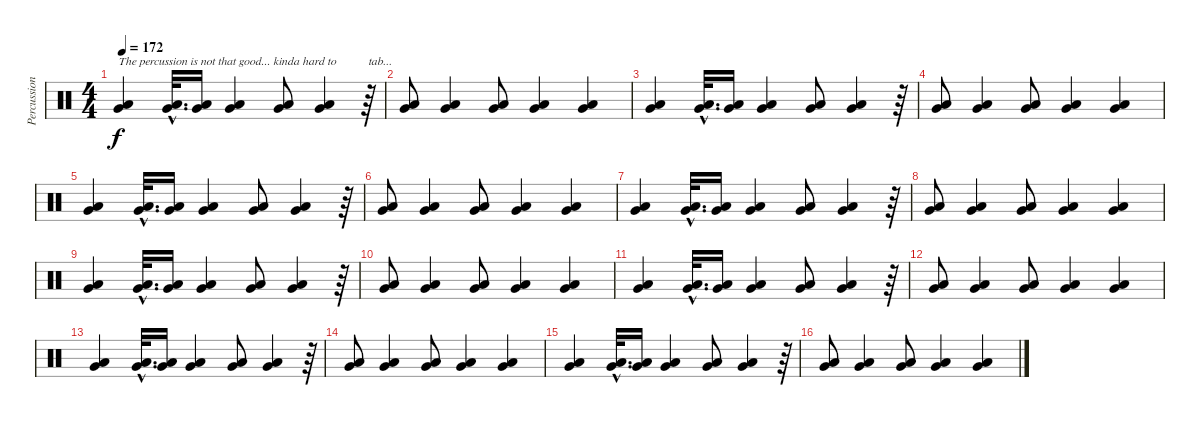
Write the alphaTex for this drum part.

\track ("Percussion / Drum Fills" "Percussion") {instrument percussion}
\staff {score}
\articulation defaults
\ts (4 4)
\tempo 172
\clef neutral
\ks c
("Very Low Tom (hit)" "Low Floor Tom (hit)").4{txt "The percussion is not that good... kinda hard to " dy f} ("Very Low Tom (hit)"{hac} "Low Floor Tom (hit)"{hac}).32{d} ("Very Low Tom (hit)" "Low Floor Tom (hit)").16 ("Very Low Tom (hit)" "Low Floor Tom (hit)").4 ("Very Low Tom (hit)" "Low Floor Tom (hit)").8 ("Very Low Tom (hit)" "Low Floor Tom (hit)").4 r.64{txt "tab..."} |
("Very Low Tom (hit)" "Low Floor Tom (hit)").8 ("Very Low Tom (hit)" "Low Floor Tom (hit)").4 ("Very Low Tom (hit)" "Low Floor Tom (hit)").8 ("Very Low Tom (hit)" "Low Floor Tom (hit)").4 ("Very Low Tom (hit)" "Low Floor Tom (hit)").4 |
("Very Low Tom (hit)" "Low Floor Tom (hit)").4 ("Very Low Tom (hit)"{hac} "Low Floor Tom (hit)"{hac}).32{d} ("Very Low Tom (hit)" "Low Floor Tom (hit)").16 ("Very Low Tom (hit)" "Low Floor Tom (hit)").4 ("Very Low Tom (hit)" "Low Floor Tom (hit)").8 ("Very Low Tom (hit)" "Low Floor Tom (hit)").4 r.64 |
("Very Low Tom (hit)" "Low Floor Tom (hit)").8 ("Very Low Tom (hit)" "Low Floor Tom (hit)").4 ("Very Low Tom (hit)" "Low Floor Tom (hit)").8 ("Very Low Tom (hit)" "Low Floor Tom (hit)").4 ("Very Low Tom (hit)" "Low Floor Tom (hit)").4 |
("Very Low Tom (hit)" "Low Floor Tom (hit)").4 ("Very Low Tom (hit)"{hac} "Low Floor Tom (hit)"{hac}).32{d} ("Very Low Tom (hit)" "Low Floor Tom (hit)").16 ("Very Low Tom (hit)" "Low Floor Tom (hit)").4 ("Very Low Tom (hit)" "Low Floor Tom (hit)").8 ("Very Low Tom (hit)" "Low Floor Tom (hit)").4 r.64 |
("Very Low Tom (hit)" "Low Floor Tom (hit)").8 ("Very Low Tom (hit)" "Low Floor Tom (hit)").4 ("Very Low Tom (hit)" "Low Floor Tom (hit)").8 ("Very Low Tom (hit)" "Low Floor Tom (hit)").4 ("Very Low Tom (hit)" "Low Floor Tom (hit)").4 |
("Very Low Tom (hit)" "Low Floor Tom (hit)").4 ("Very Low Tom (hit)"{hac} "Low Floor Tom (hit)"{hac}).32{d} ("Very Low Tom (hit)" "Low Floor Tom (hit)").16 ("Very Low Tom (hit)" "Low Floor Tom (hit)").4 ("Very Low Tom (hit)" "Low Floor Tom (hit)").8 ("Very Low Tom (hit)" "Low Floor Tom (hit)").4 r.64 |
("Very Low Tom (hit)" "Low Floor Tom (hit)").8 ("Very Low Tom (hit)" "Low Floor Tom (hit)").4 ("Very Low Tom (hit)" "Low Floor Tom (hit)").8 ("Very Low Tom (hit)" "Low Floor Tom (hit)").4 ("Very Low Tom (hit)" "Low Floor Tom (hit)").4 |
("Very Low Tom (hit)" "Low Floor Tom (hit)").4 ("Very Low Tom (hit)"{hac} "Low Floor Tom (hit)"{hac}).32{d} ("Very Low Tom (hit)" "Low Floor Tom (hit)").16 ("Very Low Tom (hit)" "Low Floor Tom (hit)").4 ("Very Low Tom (hit)" "Low Floor Tom (hit)").8 ("Very Low Tom (hit)" "Low Floor Tom (hit)").4 r.64 |
("Very Low Tom (hit)" "Low Floor Tom (hit)").8 ("Very Low Tom (hit)" "Low Floor Tom (hit)").4 ("Very Low Tom (hit)" "Low Floor Tom (hit)").8 ("Very Low Tom (hit)" "Low Floor Tom (hit)").4 ("Very Low Tom (hit)" "Low Floor Tom (hit)").4 |
("Very Low Tom (hit)" "Low Floor Tom (hit)").4 ("Very Low Tom (hit)"{hac} "Low Floor Tom (hit)"{hac}).32{d} ("Very Low Tom (hit)" "Low Floor Tom (hit)").16 ("Very Low Tom (hit)" "Low Floor Tom (hit)").4 ("Very Low Tom (hit)" "Low Floor Tom (hit)").8 ("Very Low Tom (hit)" "Low Floor Tom (hit)").4 r.64 |
("Very Low Tom (hit)" "Low Floor Tom (hit)").8 ("Very Low Tom (hit)" "Low Floor Tom (hit)").4 ("Very Low Tom (hit)" "Low Floor Tom (hit)").8 ("Very Low Tom (hit)" "Low Floor Tom (hit)").4 ("Very Low Tom (hit)" "Low Floor Tom (hit)").4 |
("Very Low Tom (hit)" "Low Floor Tom (hit)").4 ("Very Low Tom (hit)"{hac} "Low Floor Tom (hit)"{hac}).32{d} ("Very Low Tom (hit)" "Low Floor Tom (hit)").16 ("Very Low Tom (hit)" "Low Floor Tom (hit)").4 ("Very Low Tom (hit)" "Low Floor Tom (hit)").8 ("Very Low Tom (hit)" "Low Floor Tom (hit)").4 r.64 |
("Very Low Tom (hit)" "Low Floor Tom (hit)").8 ("Very Low Tom (hit)" "Low Floor Tom (hit)").4 ("Very Low Tom (hit)" "Low Floor Tom (hit)").8 ("Very Low Tom (hit)" "Low Floor Tom (hit)").4 ("Very Low Tom (hit)" "Low Floor Tom (hit)").4 |
("Very Low Tom (hit)" "Low Floor Tom (hit)").4 ("Very Low Tom (hit)"{hac} "Low Floor Tom (hit)"{hac}).32{d} ("Very Low Tom (hit)" "Low Floor Tom (hit)").16 ("Very Low Tom (hit)" "Low Floor Tom (hit)").4 ("Very Low Tom (hit)" "Low Floor Tom (hit)").8 ("Very Low Tom (hit)" "Low Floor Tom (hit)").4 r.64 |
("Very Low Tom (hit)" "Low Floor Tom (hit)").8 ("Very Low Tom (hit)" "Low Floor Tom (hit)").4 ("Very Low Tom (hit)" "Low Floor Tom (hit)").8 ("Very Low Tom (hit)" "Low Floor Tom (hit)").4 ("Very Low Tom (hit)" "Low Floor Tom (hit)").4
